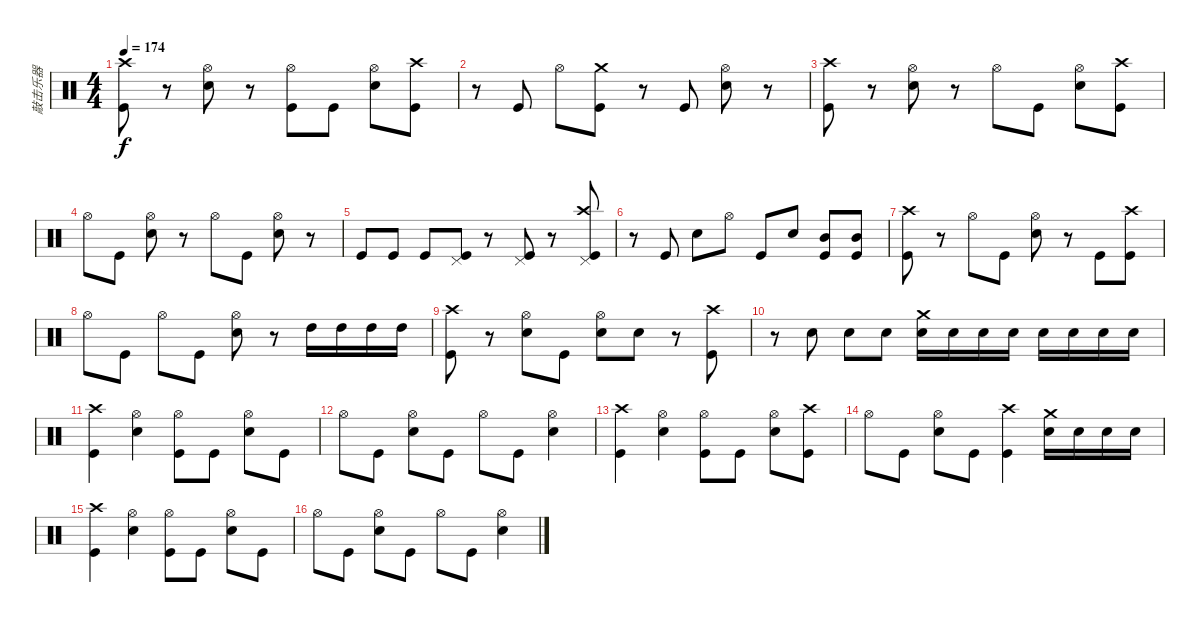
\track ("敲击乐器" "敲击乐器") {instrument percussion}
\staff {score}
\articulation defaults
\ts (4 4)
\tempo 174
\clef neutral
\ks c
("Kick (hit)" "Crash high (hit)").8{dy f} r.8 ("Electric Snare (hit)" "Hi-Hat (open)").8 r.8 ("Kick (hit)" "Hi-Hat (open)").8 "Kick (hit)".8 ("Electric Snare (hit)" "Hi-Hat (open)").8 ("Kick (hit)" "Crash high (hit)").8 |
r.8 "Kick (hit)".8 "Hi-Hat (open)".8 ("Kick (hit)" "Crash medium (hit)").8 r.8 "Kick (hit)".8 ("Electric Snare (hit)" "Hi-Hat (open)").8 r.8 |
("Crash high (hit)" "Kick (hit)").8 r.8 ("Electric Snare (hit)" "Hi-Hat (open)").8 r.8 "Hi-Hat (open)".8 "Kick (hit)".8 ("Electric Snare (hit)" "Hi-Hat (open)").8 ("Kick (hit)" "Crash high (hit)").8 |
"Hi-Hat (open)".8 "Kick (hit)".8 ("Electric Snare (hit)" "Hi-Hat (open)").8 r.8 "Hi-Hat (open)".8 "Kick (hit)".8 ("Electric Snare (hit)" "Hi-Hat (open)").8 r.8 |
"Kick (hit)".8 "Kick (hit)".8 "Kick (hit)".8 ("Kick (hit)" "Pedal Hi-Hat (hit)").8 r.8 ("Kick (hit)" "Pedal Hi-Hat (hit)").8 r.8 ("Kick (hit)" "Pedal Hi-Hat (hit)" "Crash high (hit)").8 |
r.8 "Kick (hit)".8 "Electric Snare (hit)".8 "Hi-Hat (open)".8 "Kick (hit)".8 "Electric Snare (hit)".8 ("Kick (hit)" "Mid Tom (hit)").8 ("Mid Tom (hit)" "Kick (hit)").8 |
("Crash high (hit)" "Kick (hit)").8 r.8 "Hi-Hat (open)".8 "Kick (hit)".8 ("Electric Snare (hit)" "Hi-Hat (open)").8 r.8 "Kick (hit)".8 ("Kick (hit)" "Crash high (hit)").8 |
"Hi-Hat (open)".8 "Kick (hit)".8 "Hi-Hat (open)".8 "Kick (hit)".8 ("Hi-Hat (open)" "Electric Snare (hit)").8 r.8 "High Tom (hit)".16 "High Tom (hit)".16 "High Tom (hit)".16 "High Tom (hit)".16 |
("Kick (hit)" "Crash high (hit)").8 r.8 ("Electric Snare (hit)" "Hi-Hat (open)").8 "Kick (hit)".8 ("Electric Snare (hit)" "Hi-Hat (open)").8 "Electric Snare (hit)".8 r.8 ("Kick (hit)" "Crash high (hit)").8 |
r.8 "Electric Snare (hit)".8 "Electric Snare (hit)".8 "Electric Snare (hit)".8 ("Electric Snare (hit)" "Crash medium (hit)").16 "Electric Snare (hit)".16 "Electric Snare (hit)".16 "Electric Snare (hit)".16 "Electric Snare (hit)".16 "Electric Snare (hit)".16 "Electric Snare (hit)".16 "Electric Snare (hit)".16 |
("Kick (hit)" "Crash high (hit)").4 ("Hi-Hat (open)" "Electric Snare (hit)").4 ("Hi-Hat (open)" "Kick (hit)").8 "Kick (hit)".8 ("Hi-Hat (open)" "Electric Snare (hit)").8 "Kick (hit)".8 |
"Hi-Hat (open)".8 "Kick (hit)".8 ("Hi-Hat (open)" "Electric Snare (hit)").8 "Kick (hit)".8 "Hi-Hat (open)".8 "Kick (hit)".8 ("Electric Snare (hit)" "Hi-Hat (open)").4 |
("Kick (hit)" "Crash high (hit)").4 ("Hi-Hat (open)" "Electric Snare (hit)").4 ("Hi-Hat (open)" "Kick (hit)").8 "Kick (hit)".8 ("Hi-Hat (open)" "Electric Snare (hit)").8 ("Kick (hit)" "Crash high (hit)").8 |
"Hi-Hat (open)".8 "Kick (hit)".8 ("Hi-Hat (open)" "Electric Snare (hit)").8 "Kick (hit)".8 ("Kick (hit)" "Crash high (hit)").4 ("Electric Snare (hit)" "Crash medium (hit)").16 "Electric Snare (hit)".16 "Electric Snare (hit)".16 "Electric Snare (hit)".16 |
("Kick (hit)" "Crash high (hit)").4 ("Hi-Hat (open)" "Electric Snare (hit)").4 ("Hi-Hat (open)" "Kick (hit)").8 "Kick (hit)".8 ("Hi-Hat (open)" "Electric Snare (hit)").8 "Kick (hit)".8 |
"Hi-Hat (open)".8 "Kick (hit)".8 ("Hi-Hat (open)" "Electric Snare (hit)").8 "Kick (hit)".8 "Hi-Hat (open)".8 "Kick (hit)".8 ("Electric Snare (hit)" "Hi-Hat (open)").4
